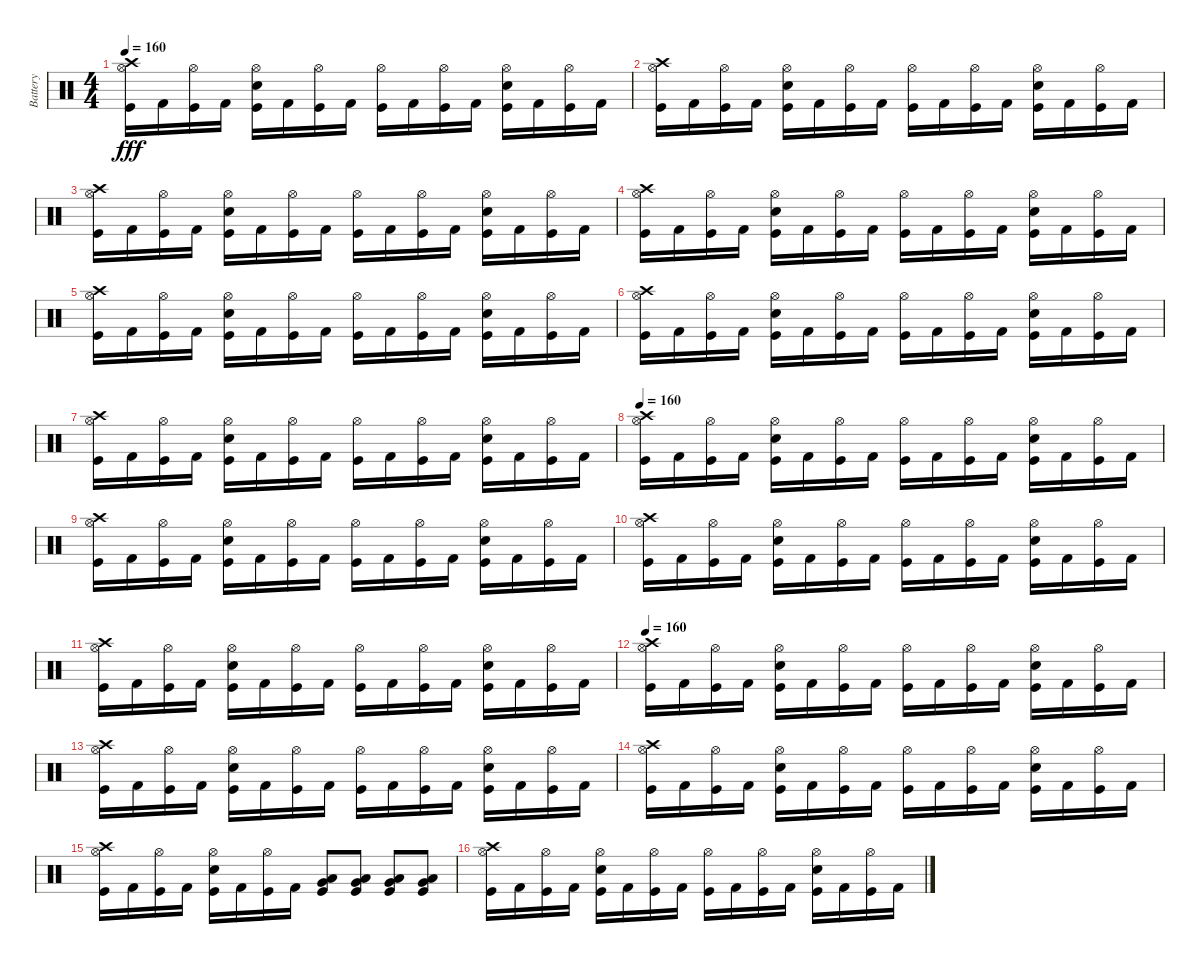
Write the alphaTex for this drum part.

\track ("Battery" "Battery") {instrument percussion}
\staff {score}
\articulation defaults
\ts (4 4)
\tempo 160
\clef neutral
\ks c
("Crash high (hit)" "Hi-Hat (open)" "Kick (hit)").16{dy fff} "Kick (hit) 2".16 ("Hi-Hat (open)" "Kick (hit)").16 "Kick (hit) 2".16 ("Hi-Hat (open)" "Electric Snare (hit)" "Kick (hit)").16 "Kick (hit) 2".16 ("Hi-Hat (open)" "Kick (hit)").16 "Kick (hit) 2".16 ("Hi-Hat (open)" "Kick (hit)").16 "Kick (hit) 2".16 ("Hi-Hat (open)" "Kick (hit)").16 "Kick (hit) 2".16 ("Hi-Hat (open)" "Electric Snare (hit)" "Kick (hit)").16 "Kick (hit) 2".16 ("Hi-Hat (open)" "Kick (hit)").16 "Kick (hit) 2".16 |
("Hi-Hat (open)" "Crash high (hit)" "Kick (hit)").16 "Kick (hit) 2".16 ("Hi-Hat (open)" "Kick (hit)").16 "Kick (hit) 2".16 ("Electric Snare (hit)" "Hi-Hat (open)" "Kick (hit)").16 "Kick (hit) 2".16 ("Hi-Hat (open)" "Kick (hit)").16 "Kick (hit) 2".16 ("Hi-Hat (open)" "Kick (hit)").16 "Kick (hit) 2".16 ("Hi-Hat (open)" "Kick (hit)").16 "Kick (hit) 2".16 ("Hi-Hat (open)" "Electric Snare (hit)" "Kick (hit)").16 "Kick (hit) 2".16 ("Hi-Hat (open)" "Kick (hit)").16 "Kick (hit) 2".16 |
("Hi-Hat (open)" "Crash high (hit)" "Kick (hit)").16 "Kick (hit) 2".16 ("Hi-Hat (open)" "Kick (hit)").16 "Kick (hit) 2".16 ("Hi-Hat (open)" "Electric Snare (hit)" "Kick (hit)").16 "Kick (hit) 2".16 ("Hi-Hat (open)" "Kick (hit)").16 "Kick (hit) 2".16 ("Hi-Hat (open)" "Kick (hit)").16 "Kick (hit) 2".16 ("Hi-Hat (open)" "Kick (hit)").16 "Kick (hit) 2".16 ("Hi-Hat (open)" "Electric Snare (hit)" "Kick (hit)").16 "Kick (hit) 2".16 ("Hi-Hat (open)" "Kick (hit)").16 "Kick (hit) 2".16 |
("Hi-Hat (open)" "Crash high (hit)" "Kick (hit)").16 "Kick (hit) 2".16 ("Hi-Hat (open)" "Kick (hit)").16 "Kick (hit) 2".16 ("Electric Snare (hit)" "Hi-Hat (open)" "Kick (hit)").16 "Kick (hit) 2".16 ("Hi-Hat (open)" "Kick (hit)").16 "Kick (hit) 2".16 ("Hi-Hat (open)" "Kick (hit)").16 "Kick (hit) 2".16 ("Hi-Hat (open)" "Kick (hit)").16 "Kick (hit) 2".16 ("Hi-Hat (open)" "Electric Snare (hit)" "Kick (hit)").16 "Kick (hit) 2".16 ("Hi-Hat (open)" "Kick (hit)").16 "Kick (hit) 2".16 |
("Crash high (hit)" "Hi-Hat (open)" "Kick (hit)").16 "Kick (hit) 2".16 ("Hi-Hat (open)" "Kick (hit)").16 "Kick (hit) 2".16 ("Electric Snare (hit)" "Hi-Hat (open)" "Kick (hit)").16 "Kick (hit) 2".16 ("Hi-Hat (open)" "Kick (hit)").16 "Kick (hit) 2".16 ("Hi-Hat (open)" "Kick (hit)").16 "Kick (hit) 2".16 ("Hi-Hat (open)" "Kick (hit)").16 "Kick (hit) 2".16 ("Hi-Hat (open)" "Electric Snare (hit)" "Kick (hit)").16 "Kick (hit) 2".16 ("Hi-Hat (open)" "Kick (hit)").16 "Kick (hit) 2".16 |
("Hi-Hat (open)" "Crash high (hit)" "Kick (hit)").16 "Kick (hit) 2".16 ("Hi-Hat (open)" "Kick (hit)").16 "Kick (hit) 2".16 ("Electric Snare (hit)" "Hi-Hat (open)" "Kick (hit)").16 "Kick (hit) 2".16 ("Hi-Hat (open)" "Kick (hit)").16 "Kick (hit) 2".16 ("Hi-Hat (open)" "Kick (hit)").16 "Kick (hit) 2".16 ("Hi-Hat (open)" "Kick (hit)").16 "Kick (hit) 2".16 ("Hi-Hat (open)" "Electric Snare (hit)" "Kick (hit)").16 "Kick (hit) 2".16 ("Hi-Hat (open)" "Kick (hit)").16 "Kick (hit) 2".16 |
("Hi-Hat (open)" "Crash high (hit)" "Kick (hit)").16 "Kick (hit) 2".16 ("Hi-Hat (open)" "Kick (hit)").16 "Kick (hit) 2".16 ("Hi-Hat (open)" "Electric Snare (hit)" "Kick (hit)").16 "Kick (hit) 2".16 ("Hi-Hat (open)" "Kick (hit)").16 "Kick (hit) 2".16 ("Hi-Hat (open)" "Kick (hit)").16 "Kick (hit) 2".16 ("Hi-Hat (open)" "Kick (hit)").16 "Kick (hit) 2".16 ("Electric Snare (hit)" "Hi-Hat (open)" "Kick (hit)").16 "Kick (hit) 2".16 ("Hi-Hat (open)" "Kick (hit)").16 "Kick (hit) 2".16 |
\tempo 160
("Crash high (hit)" "Hi-Hat (open)" "Kick (hit)").16 "Kick (hit) 2".16 ("Hi-Hat (open)" "Kick (hit)").16 "Kick (hit) 2".16 ("Electric Snare (hit)" "Hi-Hat (open)" "Kick (hit)").16 "Kick (hit) 2".16 ("Hi-Hat (open)" "Kick (hit)").16 "Kick (hit) 2".16 ("Hi-Hat (open)" "Kick (hit)").16 "Kick (hit) 2".16 ("Hi-Hat (open)" "Kick (hit)").16 "Kick (hit) 2".16 ("Electric Snare (hit)" "Hi-Hat (open)" "Kick (hit)").16 "Kick (hit) 2".16 ("Hi-Hat (open)" "Kick (hit)").16 "Kick (hit) 2".16 |
("Hi-Hat (open)" "Crash high (hit)" "Kick (hit)").16 "Kick (hit) 2".16 ("Hi-Hat (open)" "Kick (hit)").16 "Kick (hit) 2".16 ("Electric Snare (hit)" "Hi-Hat (open)" "Kick (hit)").16 "Kick (hit) 2".16 ("Hi-Hat (open)" "Kick (hit)").16 "Kick (hit) 2".16 ("Hi-Hat (open)" "Kick (hit)").16 "Kick (hit) 2".16 ("Hi-Hat (open)" "Kick (hit)").16 "Kick (hit) 2".16 ("Electric Snare (hit)" "Hi-Hat (open)" "Kick (hit)").16 "Kick (hit) 2".16 ("Hi-Hat (open)" "Kick (hit)").16 "Kick (hit) 2".16 |
("Crash high (hit)" "Hi-Hat (open)" "Kick (hit)").16 "Kick (hit) 2".16 ("Hi-Hat (open)" "Kick (hit)").16 "Kick (hit) 2".16 ("Electric Snare (hit)" "Hi-Hat (open)" "Kick (hit)").16 "Kick (hit) 2".16 ("Hi-Hat (open)" "Kick (hit)").16 "Kick (hit) 2".16 ("Hi-Hat (open)" "Kick (hit)").16 "Kick (hit) 2".16 ("Hi-Hat (open)" "Kick (hit)").16 "Kick (hit) 2".16 ("Hi-Hat (open)" "Electric Snare (hit)" "Kick (hit)").16 "Kick (hit) 2".16 ("Hi-Hat (open)" "Kick (hit)").16 "Kick (hit) 2".16 |
("Hi-Hat (open)" "Crash high (hit)" "Kick (hit)").16 "Kick (hit) 2".16 ("Hi-Hat (open)" "Kick (hit)").16 "Kick (hit) 2".16 ("Hi-Hat (open)" "Electric Snare (hit)" "Kick (hit)").16 "Kick (hit) 2".16 ("Hi-Hat (open)" "Kick (hit)").16 "Kick (hit) 2".16 ("Hi-Hat (open)" "Kick (hit)").16 "Kick (hit) 2".16 ("Hi-Hat (open)" "Kick (hit)").16 "Kick (hit) 2".16 ("Electric Snare (hit)" "Hi-Hat (open)" "Kick (hit)").16 "Kick (hit) 2".16 ("Hi-Hat (open)" "Kick (hit)").16 "Kick (hit) 2".16 |
\tempo 160
("Crash high (hit)" "Hi-Hat (open)" "Kick (hit)").16 "Kick (hit) 2".16 ("Hi-Hat (open)" "Kick (hit)").16 "Kick (hit) 2".16 ("Hi-Hat (open)" "Electric Snare (hit)" "Kick (hit)").16 "Kick (hit) 2".16 ("Hi-Hat (open)" "Kick (hit)").16 "Kick (hit) 2".16 ("Hi-Hat (open)" "Kick (hit)").16 "Kick (hit) 2".16 ("Hi-Hat (open)" "Kick (hit)").16 "Kick (hit) 2".16 ("Hi-Hat (open)" "Electric Snare (hit)" "Kick (hit)").16 "Kick (hit) 2".16 ("Hi-Hat (open)" "Kick (hit)").16 "Kick (hit) 2".16 |
("Crash high (hit)" "Hi-Hat (open)" "Kick (hit)").16 "Kick (hit) 2".16 ("Hi-Hat (open)" "Kick (hit)").16 "Kick (hit) 2".16 ("Electric Snare (hit)" "Hi-Hat (open)" "Kick (hit)").16 "Kick (hit) 2".16 ("Hi-Hat (open)" "Kick (hit)").16 "Kick (hit) 2".16 ("Hi-Hat (open)" "Kick (hit)").16 "Kick (hit) 2".16 ("Hi-Hat (open)" "Kick (hit)").16 "Kick (hit) 2".16 ("Electric Snare (hit)" "Hi-Hat (open)" "Kick (hit)").16 "Kick (hit) 2".16 ("Hi-Hat (open)" "Kick (hit)").16 "Kick (hit) 2".16 |
("Crash high (hit)" "Hi-Hat (open)" "Kick (hit)").16 "Kick (hit) 2".16 ("Hi-Hat (open)" "Kick (hit)").16 "Kick (hit) 2".16 ("Electric Snare (hit)" "Hi-Hat (open)" "Kick (hit)").16 "Kick (hit) 2".16 ("Hi-Hat (open)" "Kick (hit)").16 "Kick (hit) 2".16 ("Hi-Hat (open)" "Kick (hit)").16 "Kick (hit) 2".16 ("Hi-Hat (open)" "Kick (hit)").16 "Kick (hit) 2".16 ("Electric Snare (hit)" "Hi-Hat (open)" "Kick (hit)").16 "Kick (hit) 2".16 ("Hi-Hat (open)" "Kick (hit)").16 "Kick (hit) 2".16 |
("Hi-Hat (open)" "Crash high (hit)" "Kick (hit)").16 "Kick (hit) 2".16 ("Hi-Hat (open)" "Kick (hit)").16 "Kick (hit) 2".16 ("Hi-Hat (open)" "Electric Snare (hit)" "Kick (hit)").16 "Kick (hit) 2".16 ("Hi-Hat (open)" "Kick (hit)").16 "Kick (hit) 2".16 ("Very Low Tom (hit)" "Low Tom (hit)" "Kick (hit)").8 ("Low Tom (hit)" "Very Low Tom (hit)" "Kick (hit)").8 ("Very Low Tom (hit)" "Low Floor Tom (hit)" "Kick (hit)").8 ("Low Floor Tom (hit)" "Very Low Tom (hit)" "Kick (hit)").8 |
("Crash high (hit)" "Hi-Hat (open)" "Kick (hit)").16 "Kick (hit) 2".16 ("Hi-Hat (open)" "Kick (hit)").16 "Kick (hit) 2".16 ("Electric Snare (hit)" "Hi-Hat (open)" "Kick (hit)").16 "Kick (hit) 2".16 ("Hi-Hat (open)" "Kick (hit)").16 "Kick (hit) 2".16 ("Hi-Hat (open)" "Kick (hit)").16 "Kick (hit) 2".16 ("Hi-Hat (open)" "Kick (hit)").16 "Kick (hit) 2".16 ("Electric Snare (hit)" "Hi-Hat (open)" "Kick (hit)").16 "Kick (hit) 2".16 ("Hi-Hat (open)" "Kick (hit)").16 "Kick (hit) 2".16
